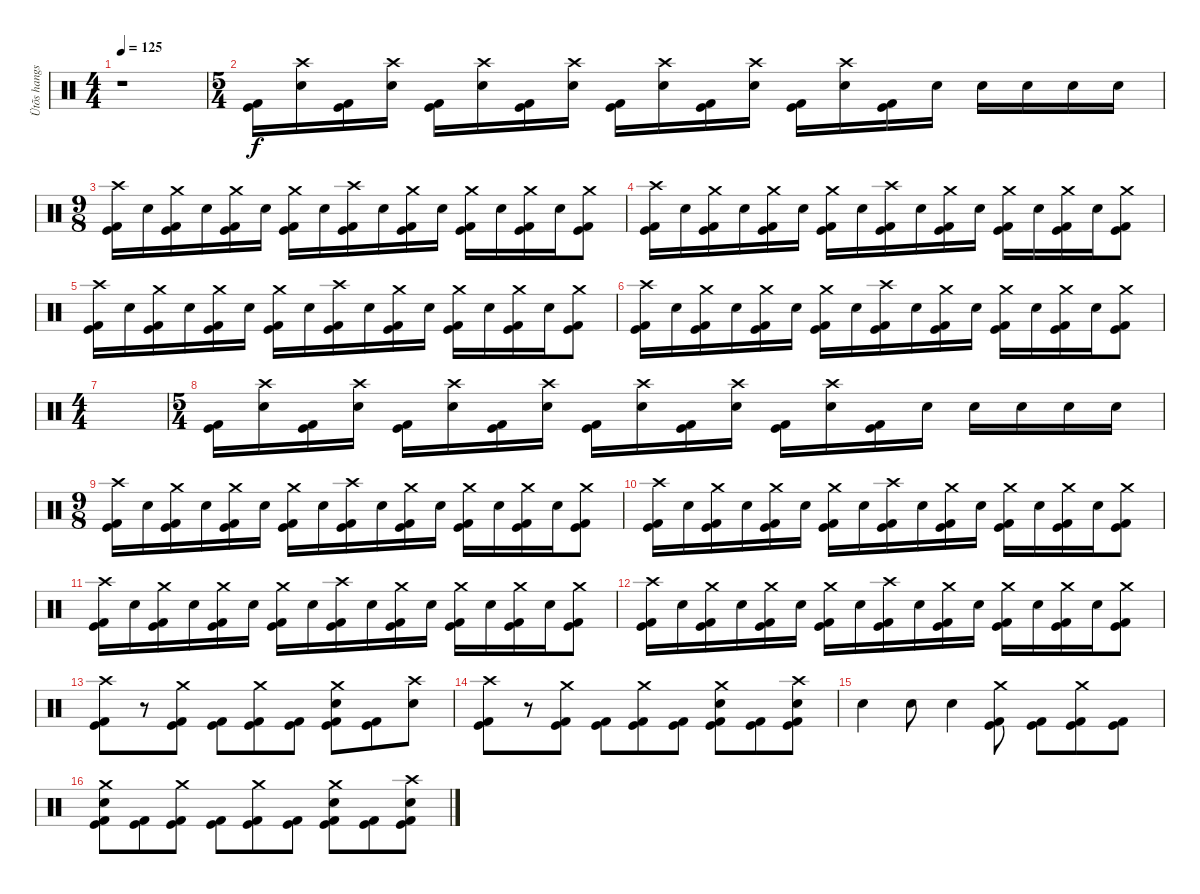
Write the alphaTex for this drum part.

\track ("Ütõs hangszer" "Ütõs hangs") {instrument percussion}
\staff {score}
\articulation defaults
\ts (4 4)
\tempo 125
\clef neutral
\ks c
r.1{dy f} |
\ts (5 4)
("Kick (hit)" "Kick (hit) 2").16 ("Crash high (hit)" "Snare (hit) 2").16 ("Kick (hit)" "Kick (hit) 2").16 ("Crash high (hit)" "Snare (hit) 2").16 ("Kick (hit)" "Kick (hit) 2").16 ("Crash high (hit)" "Snare (hit) 2").16 ("Kick (hit)" "Kick (hit) 2").16 ("Crash high (hit)" "Snare (hit) 2").16 ("Kick (hit)" "Kick (hit) 2").16 ("Crash high (hit)" "Snare (hit) 2").16 ("Kick (hit)" "Kick (hit) 2").16 ("Crash high (hit)" "Snare (hit) 2").16 ("Kick (hit)" "Kick (hit) 2").16 ("Crash high (hit)" "Snare (hit) 2").16 ("Kick (hit)" "Kick (hit) 2").16 "Snare (hit) 2".16 "Snare (hit) 2".16 "Snare (hit) 2".16 "Snare (hit) 2".16 "Snare (hit) 2".16 |
\ts (9 8)
("Crash high (hit)" "Kick (hit)" "Kick (hit) 2").16 "Snare (hit) 2".16 ("Crash medium (hit)" "Kick (hit)" "Kick (hit) 2").16 "Snare (hit) 2".16 ("Crash medium (hit)" "Kick (hit)" "Kick (hit) 2").16 "Snare (hit) 2".16 ("Crash medium (hit)" "Kick (hit)" "Kick (hit) 2").16 "Snare (hit) 2".16 ("Crash high (hit)" "Kick (hit)" "Kick (hit) 2").16 "Snare (hit) 2".16 ("Crash medium (hit)" "Kick (hit)" "Kick (hit) 2").16 "Snare (hit) 2".16 ("Crash medium (hit)" "Kick (hit)" "Kick (hit) 2").16 "Snare (hit) 2".16 ("Crash medium (hit)" "Kick (hit)" "Kick (hit) 2").16 "Snare (hit) 2".16 ("Crash medium (hit)" "Kick (hit)" "Kick (hit) 2").8 |
("Crash high (hit)" "Kick (hit)" "Kick (hit) 2").16 "Snare (hit) 2".16 ("Crash medium (hit)" "Kick (hit)" "Kick (hit) 2").16 "Snare (hit) 2".16 ("Crash medium (hit)" "Kick (hit)" "Kick (hit) 2").16 "Snare (hit) 2".16 ("Crash medium (hit)" "Kick (hit)" "Kick (hit) 2").16 "Snare (hit) 2".16 ("Crash high (hit)" "Kick (hit)" "Kick (hit) 2").16 "Snare (hit) 2".16 ("Crash medium (hit)" "Kick (hit)" "Kick (hit) 2").16 "Snare (hit) 2".16 ("Crash medium (hit)" "Kick (hit)" "Kick (hit) 2").16 "Snare (hit) 2".16 ("Crash medium (hit)" "Kick (hit)" "Kick (hit) 2").16 "Snare (hit) 2".16 ("Crash medium (hit)" "Kick (hit)" "Kick (hit) 2").8 |
("Crash high (hit)" "Kick (hit)" "Kick (hit) 2").16 "Snare (hit) 2".16 ("Crash medium (hit)" "Kick (hit)" "Kick (hit) 2").16 "Snare (hit) 2".16 ("Crash medium (hit)" "Kick (hit)" "Kick (hit) 2").16 "Snare (hit) 2".16 ("Crash medium (hit)" "Kick (hit)" "Kick (hit) 2").16 "Snare (hit) 2".16 ("Crash high (hit)" "Kick (hit)" "Kick (hit) 2").16 "Snare (hit) 2".16 ("Crash medium (hit)" "Kick (hit)" "Kick (hit) 2").16 "Snare (hit) 2".16 ("Crash medium (hit)" "Kick (hit)" "Kick (hit) 2").16 "Snare (hit) 2".16 ("Crash medium (hit)" "Kick (hit)" "Kick (hit) 2").16 "Snare (hit) 2".16 ("Crash medium (hit)" "Kick (hit)" "Kick (hit) 2").8 |
("Crash high (hit)" "Kick (hit)" "Kick (hit) 2").16 "Snare (hit) 2".16 ("Crash medium (hit)" "Kick (hit)" "Kick (hit) 2").16 "Snare (hit) 2".16 ("Crash medium (hit)" "Kick (hit)" "Kick (hit) 2").16 "Snare (hit) 2".16 ("Crash medium (hit)" "Kick (hit)" "Kick (hit) 2").16 "Snare (hit) 2".16 ("Crash high (hit)" "Kick (hit)" "Kick (hit) 2").16 "Snare (hit) 2".16 ("Crash medium (hit)" "Kick (hit)" "Kick (hit) 2").16 "Snare (hit) 2".16 ("Crash medium (hit)" "Kick (hit)" "Kick (hit) 2").16 "Snare (hit) 2".16 ("Crash medium (hit)" "Kick (hit)" "Kick (hit) 2").16 "Snare (hit) 2".16 ("Crash medium (hit)" "Kick (hit)" "Kick (hit) 2").8 |
\ts (4 4)
|
\ts (5 4)
("Kick (hit)" "Kick (hit) 2").16 ("Crash high (hit)" "Snare (hit) 2").16 ("Kick (hit)" "Kick (hit) 2").16 ("Crash high (hit)" "Snare (hit) 2").16 ("Kick (hit)" "Kick (hit) 2").16 ("Crash high (hit)" "Snare (hit) 2").16 ("Kick (hit)" "Kick (hit) 2").16 ("Crash high (hit)" "Snare (hit) 2").16 ("Kick (hit)" "Kick (hit) 2").16 ("Crash high (hit)" "Snare (hit) 2").16 ("Kick (hit)" "Kick (hit) 2").16 ("Crash high (hit)" "Snare (hit) 2").16 ("Kick (hit)" "Kick (hit) 2").16 ("Crash high (hit)" "Snare (hit) 2").16 ("Kick (hit)" "Kick (hit) 2").16 "Snare (hit) 2".16 "Snare (hit) 2".16 "Snare (hit) 2".16 "Snare (hit) 2".16 "Snare (hit) 2".16 |
\ts (9 8)
("Crash high (hit)" "Kick (hit)" "Kick (hit) 2").16 "Snare (hit) 2".16 ("Crash medium (hit)" "Kick (hit)" "Kick (hit) 2").16 "Snare (hit) 2".16 ("Crash medium (hit)" "Kick (hit)" "Kick (hit) 2").16 "Snare (hit) 2".16 ("Crash medium (hit)" "Kick (hit)" "Kick (hit) 2").16 "Snare (hit) 2".16 ("Crash high (hit)" "Kick (hit)" "Kick (hit) 2").16 "Snare (hit) 2".16 ("Crash medium (hit)" "Kick (hit)" "Kick (hit) 2").16 "Snare (hit) 2".16 ("Crash medium (hit)" "Kick (hit)" "Kick (hit) 2").16 "Snare (hit) 2".16 ("Crash medium (hit)" "Kick (hit)" "Kick (hit) 2").16 "Snare (hit) 2".16 ("Crash medium (hit)" "Kick (hit)" "Kick (hit) 2").8 |
("Crash high (hit)" "Kick (hit)" "Kick (hit) 2").16 "Snare (hit) 2".16 ("Crash medium (hit)" "Kick (hit)" "Kick (hit) 2").16 "Snare (hit) 2".16 ("Crash medium (hit)" "Kick (hit)" "Kick (hit) 2").16 "Snare (hit) 2".16 ("Crash medium (hit)" "Kick (hit)" "Kick (hit) 2").16 "Snare (hit) 2".16 ("Crash high (hit)" "Kick (hit)" "Kick (hit) 2").16 "Snare (hit) 2".16 ("Crash medium (hit)" "Kick (hit)" "Kick (hit) 2").16 "Snare (hit) 2".16 ("Crash medium (hit)" "Kick (hit)" "Kick (hit) 2").16 "Snare (hit) 2".16 ("Crash medium (hit)" "Kick (hit)" "Kick (hit) 2").16 "Snare (hit) 2".16 ("Crash medium (hit)" "Kick (hit)" "Kick (hit) 2").8 |
("Crash high (hit)" "Kick (hit)" "Kick (hit) 2").16 "Snare (hit) 2".16 ("Crash medium (hit)" "Kick (hit)" "Kick (hit) 2").16 "Snare (hit) 2".16 ("Crash medium (hit)" "Kick (hit)" "Kick (hit) 2").16 "Snare (hit) 2".16 ("Crash medium (hit)" "Kick (hit)" "Kick (hit) 2").16 "Snare (hit) 2".16 ("Crash high (hit)" "Kick (hit)" "Kick (hit) 2").16 "Snare (hit) 2".16 ("Crash medium (hit)" "Kick (hit)" "Kick (hit) 2").16 "Snare (hit) 2".16 ("Crash medium (hit)" "Kick (hit)" "Kick (hit) 2").16 "Snare (hit) 2".16 ("Crash medium (hit)" "Kick (hit)" "Kick (hit) 2").16 "Snare (hit) 2".16 ("Crash medium (hit)" "Kick (hit)" "Kick (hit) 2").8 |
("Crash high (hit)" "Kick (hit)" "Kick (hit) 2").16 "Snare (hit) 2".16 ("Crash medium (hit)" "Kick (hit)" "Kick (hit) 2").16 "Snare (hit) 2".16 ("Crash medium (hit)" "Kick (hit)" "Kick (hit) 2").16 "Snare (hit) 2".16 ("Crash medium (hit)" "Kick (hit)" "Kick (hit) 2").16 "Snare (hit) 2".16 ("Crash high (hit)" "Kick (hit)" "Kick (hit) 2").16 "Snare (hit) 2".16 ("Crash medium (hit)" "Kick (hit)" "Kick (hit) 2").16 "Snare (hit) 2".16 ("Crash medium (hit)" "Kick (hit)" "Kick (hit) 2").16 "Snare (hit) 2".16 ("Crash medium (hit)" "Kick (hit)" "Kick (hit) 2").16 "Snare (hit) 2".16 ("Crash medium (hit)" "Kick (hit)" "Kick (hit) 2").8 |
("Crash high (hit)" "Kick (hit)" "Kick (hit) 2").8 r.8 ("Crash medium (hit)" "Kick (hit)" "Kick (hit) 2").8 ("Kick (hit)" "Kick (hit) 2").8 ("Crash medium (hit)" "Kick (hit)" "Kick (hit) 2").8 ("Kick (hit)" "Kick (hit) 2").8 ("Crash medium (hit)" "Snare (hit) 2" "Kick (hit)" "Kick (hit) 2").8 ("Kick (hit)" "Kick (hit) 2").8 ("Crash high (hit)" "Snare (hit) 2").8 |
("Crash high (hit)" "Kick (hit)" "Kick (hit) 2").8 r.8 ("Crash medium (hit)" "Kick (hit)" "Kick (hit) 2").8 ("Kick (hit)" "Kick (hit) 2").8 ("Crash medium (hit)" "Kick (hit)" "Kick (hit) 2").8 ("Kick (hit)" "Kick (hit) 2").8 ("Crash medium (hit)" "Snare (hit) 2" "Kick (hit)" "Kick (hit) 2").8 ("Kick (hit)" "Kick (hit) 2").8 ("Crash high (hit)" "Snare (hit) 2" "Kick (hit)" "Kick (hit) 2").8 |
"Snare (hit) 2".4 "Snare (hit) 2".8 "Snare (hit) 2".4 ("Crash medium (hit)" "Kick (hit)" "Kick (hit) 2").8 ("Kick (hit)" "Kick (hit) 2").8 ("Crash medium (hit)" "Kick (hit)" "Kick (hit) 2").8 ("Kick (hit)" "Kick (hit) 2").8 |
("Crash medium (hit)" "Snare (hit) 2" "Kick (hit)" "Kick (hit) 2").8 ("Kick (hit)" "Kick (hit) 2").8 ("Crash medium (hit)" "Kick (hit)" "Kick (hit) 2").8 ("Kick (hit)" "Kick (hit) 2").8 ("Crash medium (hit)" "Kick (hit)" "Kick (hit) 2").8 ("Kick (hit)" "Kick (hit) 2").8 ("Crash medium (hit)" "Snare (hit) 2" "Kick (hit)" "Kick (hit) 2").8 ("Kick (hit)" "Kick (hit) 2").8 ("Crash high (hit)" "Snare (hit) 2" "Kick (hit)" "Kick (hit) 2").8
